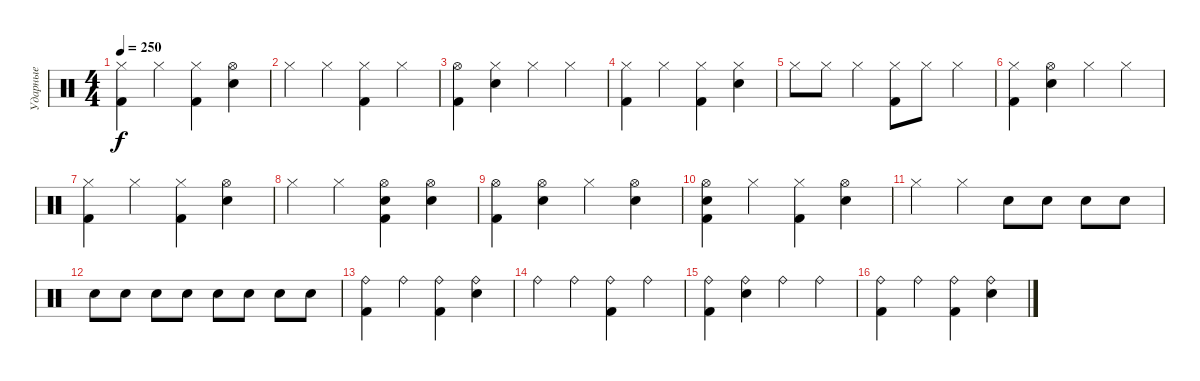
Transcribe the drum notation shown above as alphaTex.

\track ("Ударные" "Ударные") {instrument percussion}
\staff {score}
\articulation defaults
\ts (4 4)
\tempo 250
\clef neutral
\ks c
("Hi-Hat (closed)" "Kick (hit) 2").4{dy f} "Hi-Hat (closed)".4 ("Hi-Hat (closed)" "Kick (hit) 2").4 ("Snare (hit) 2" "Hi-Hat (open)").4 |
"Hi-Hat (closed)".4 "Hi-Hat (closed)".4 ("Hi-Hat (closed)" "Kick (hit) 2").4 "Hi-Hat (closed)".4 |
("Hi-Hat (open)" "Kick (hit) 2").4 ("Snare (hit) 2" "Hi-Hat (closed)").4 "Hi-Hat (closed)".4 "Hi-Hat (closed)".4 |
("Hi-Hat (closed)" "Kick (hit) 2").4 "Hi-Hat (closed)".4 ("Hi-Hat (closed)" "Kick (hit) 2").4 ("Snare (hit) 2" "Hi-Hat (closed)").4 |
"Hi-Hat (closed)".8 "Hi-Hat (closed)".8 "Hi-Hat (closed)".4 ("Hi-Hat (closed)" "Kick (hit) 2").8 "Hi-Hat (closed)".8 "Hi-Hat (closed)".4 |
("Hi-Hat (closed)" "Kick (hit) 2").4 ("Snare (hit) 2" "Hi-Hat (open)").4 "Hi-Hat (closed)".4 "Hi-Hat (closed)".4 |
("Hi-Hat (closed)" "Kick (hit) 2").4 "Hi-Hat (closed)".4 ("Hi-Hat (closed)" "Kick (hit) 2").4 ("Snare (hit) 2" "Hi-Hat (open)").4 |
"Hi-Hat (closed)".4 "Hi-Hat (closed)".4 ("Snare (hit) 2" "Hi-Hat (open)" "Kick (hit) 2").4 ("Snare (hit) 2" "Hi-Hat (open)").4 |
("Hi-Hat (open)" "Kick (hit) 2").4 ("Snare (hit) 2" "Hi-Hat (open)").4 "Hi-Hat (closed)".4 ("Snare (hit) 2" "Hi-Hat (open)").4 |
("Snare (hit) 2" "Hi-Hat (open)" "Kick (hit) 2").4 "Hi-Hat (closed)".4 ("Hi-Hat (closed)" "Kick (hit) 2").4 ("Snare (hit) 2" "Hi-Hat (open)").4 |
"Hi-Hat (closed)".4 "Hi-Hat (closed)".4 "Snare (hit) 2".8 "Snare (hit) 2".8 "Snare (hit) 2".8 "Snare (hit) 2".8 |
"Snare (hit) 2".8 "Snare (hit) 2".8 "Snare (hit) 2".8 "Snare (hit) 2".8 "Snare (hit) 2".8 "Snare (hit) 2".8 "Snare (hit) 2".8 "Snare (hit) 2".8 |
("Ride (bell)" "Kick (hit) 2").4 "Ride (bell)".4 ("Ride (bell)" "Kick (hit) 2").4 ("Snare (hit) 2" "Ride (bell)").4 |
"Ride (bell)".4 "Ride (bell)".4 ("Ride (bell)" "Kick (hit) 2").4 "Ride (bell)".4 |
("Ride (bell)" "Kick (hit) 2").4 ("Snare (hit) 2" "Ride (bell)").4 "Ride (bell)".4 "Ride (bell)".4 |
("Ride (bell)" "Kick (hit) 2").4 "Ride (bell)".4 ("Ride (bell)" "Kick (hit) 2").4 ("Snare (hit) 2" "Ride (bell)").4
